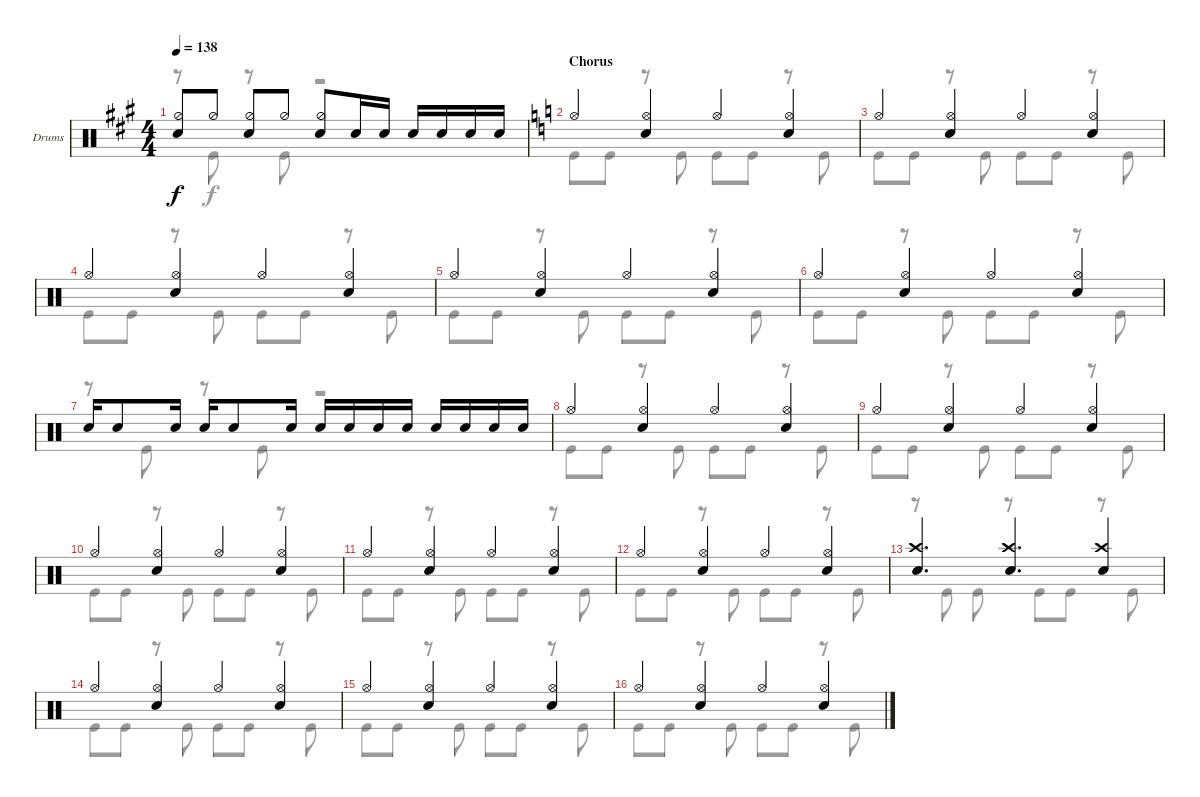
\defaultSystemsLayout 4
\bracketExtendMode groupsimilarinstruments
\firstSystemTrackNameOrientation horizontal
\otherSystemsTrackNameOrientation horizontal
\track ("Drumkit" "Drums") {instrument percussion}
\staff {score}
\articulation defaults
\voice
\ts (4 4)
\tempo 138
\clef neutral
\ks a
("Hi-Hat (half)" "Snare (hit) 2").8{dy f} "Hi-Hat (half)".8 ("Hi-Hat (half)" "Snare (hit) 2").8 "Hi-Hat (half)".8 ("Hi-Hat (half)" "Snare (hit) 2").8 "Snare (hit) 2".16 "Snare (hit) 2".16 "Snare (hit) 2".16 "Snare (hit) 2".16 "Snare (hit) 2".16 "Snare (hit) 2".16 |
\section ("" "Chorus")
\ks c "Hi-Hat (open)".4
("Hi-Hat (open)" "Snare (hit) 2").4 "Hi-Hat (open)".4 ("Hi-Hat (open)" "Snare (hit) 2").4 |
"Hi-Hat (open)".4 ("Hi-Hat (open)" "Snare (hit) 2").4 "Hi-Hat (open)".4 ("Hi-Hat (open)" "Snare (hit) 2").4 |
"Hi-Hat (open)".4 ("Hi-Hat (open)" "Snare (hit) 2").4 "Hi-Hat (open)".4 ("Hi-Hat (open)" "Snare (hit) 2").4 |
"Hi-Hat (open)".4 ("Hi-Hat (open)" "Snare (hit) 2").4 "Hi-Hat (open)".4 ("Hi-Hat (open)" "Snare (hit) 2").4 |
"Hi-Hat (open)".4 ("Hi-Hat (open)" "Snare (hit) 2").4 "Hi-Hat (open)".4 ("Hi-Hat (open)" "Snare (hit) 2").4 |
"Snare (hit) 2".16 "Snare (hit) 2".8 "Snare (hit) 2".16 "Snare (hit) 2".16 "Snare (hit) 2".8 "Snare (hit) 2".16 "Snare (hit) 2".16 "Snare (hit) 2".16 "Snare (hit) 2".16 "Snare (hit) 2".16 "Snare (hit) 2".16 "Snare (hit) 2".16 "Snare (hit) 2".16 "Snare (hit) 2".16 |
"Hi-Hat (open)".4 ("Hi-Hat (open)" "Snare (hit) 2").4 "Hi-Hat (open)".4 ("Hi-Hat (open)" "Snare (hit) 2").4 |
"Hi-Hat (open)".4 ("Hi-Hat (open)" "Snare (hit) 2").4 "Hi-Hat (open)".4 ("Hi-Hat (open)" "Snare (hit) 2").4 |
"Hi-Hat (open)".4 ("Hi-Hat (open)" "Snare (hit) 2").4 "Hi-Hat (open)".4 ("Hi-Hat (open)" "Snare (hit) 2").4 |
"Hi-Hat (open)".4 ("Hi-Hat (open)" "Snare (hit) 2").4 "Hi-Hat (open)".4 ("Hi-Hat (open)" "Snare (hit) 2").4 |
"Hi-Hat (open)".4 ("Hi-Hat (open)" "Snare (hit) 2").4 "Hi-Hat (open)".4 ("Hi-Hat (open)" "Snare (hit) 2").4 |
("Crash high (hit)" "Snare (hit) 2").4{d} ("Crash high (hit)" "Snare (hit) 2").4{d} ("Crash high (hit)" "Snare (hit) 2").4 |
"Hi-Hat (open)".4 ("Hi-Hat (open)" "Snare (hit) 2").4 "Hi-Hat (open)".4 ("Hi-Hat (open)" "Snare (hit) 2").4 |
"Hi-Hat (open)".4 ("Hi-Hat (open)" "Snare (hit) 2").4 "Hi-Hat (open)".4 ("Hi-Hat (open)" "Snare (hit) 2").4 |
"Hi-Hat (open)".4 ("Hi-Hat (open)" "Snare (hit) 2").4 "Hi-Hat (open)".4 ("Hi-Hat (open)" "Snare (hit) 2").4
\voice
\clef neutral
\ottava regular
\simile none
\ks a
r.8{dy f} "Kick (hit)".8 r.8 "Kick (hit)".8 r.2 |
\ks c "Kick (hit)".8 "Kick (hit)".8
r.8 "Kick (hit)".8 "Kick (hit)".8 "Kick (hit)".8 r.8 "Kick (hit)".8 |
"Kick (hit)".8 "Kick (hit)".8 r.8 "Kick (hit)".8 "Kick (hit)".8 "Kick (hit)".8 r.8 "Kick (hit)".8 |
"Kick (hit)".8 "Kick (hit)".8 r.8 "Kick (hit)".8 "Kick (hit)".8 "Kick (hit)".8 r.8 "Kick (hit)".8 |
"Kick (hit)".8 "Kick (hit)".8 r.8 "Kick (hit)".8 "Kick (hit)".8 "Kick (hit)".8 r.8 "Kick (hit)".8 |
"Kick (hit)".8 "Kick (hit)".8 r.8 "Kick (hit)".8 "Kick (hit)".8 "Kick (hit)".8 r.8 "Kick (hit)".8 |
r.8 "Kick (hit)".8 r.8 "Kick (hit)".8 r.2 |
"Kick (hit)".8 "Kick (hit)".8 r.8 "Kick (hit)".8 "Kick (hit)".8 "Kick (hit)".8 r.8 "Kick (hit)".8 |
"Kick (hit)".8 "Kick (hit)".8 r.8 "Kick (hit)".8 "Kick (hit)".8 "Kick (hit)".8 r.8 "Kick (hit)".8 |
"Kick (hit)".8 "Kick (hit)".8 r.8 "Kick (hit)".8 "Kick (hit)".8 "Kick (hit)".8 r.8 "Kick (hit)".8 |
"Kick (hit)".8 "Kick (hit)".8 r.8 "Kick (hit)".8 "Kick (hit)".8 "Kick (hit)".8 r.8 "Kick (hit)".8 |
"Kick (hit)".8 "Kick (hit)".8 r.8 "Kick (hit)".8 "Kick (hit)".8 "Kick (hit)".8 r.8 "Kick (hit)".8 |
r.8 "Kick (hit)".8 "Kick (hit)".8 r.8 "Kick (hit)".8 "Kick (hit)".8 r.8 "Kick (hit)".8 |
"Kick (hit)".8 "Kick (hit)".8 r.8 "Kick (hit)".8 "Kick (hit)".8 "Kick (hit)".8 r.8 "Kick (hit)".8 |
"Kick (hit)".8 "Kick (hit)".8 r.8 "Kick (hit)".8 "Kick (hit)".8 "Kick (hit)".8 r.8 "Kick (hit)".8 |
"Kick (hit)".8 "Kick (hit)".8 r.8 "Kick (hit)".8 "Kick (hit)".8 "Kick (hit)".8 r.8 "Kick (hit)".8
